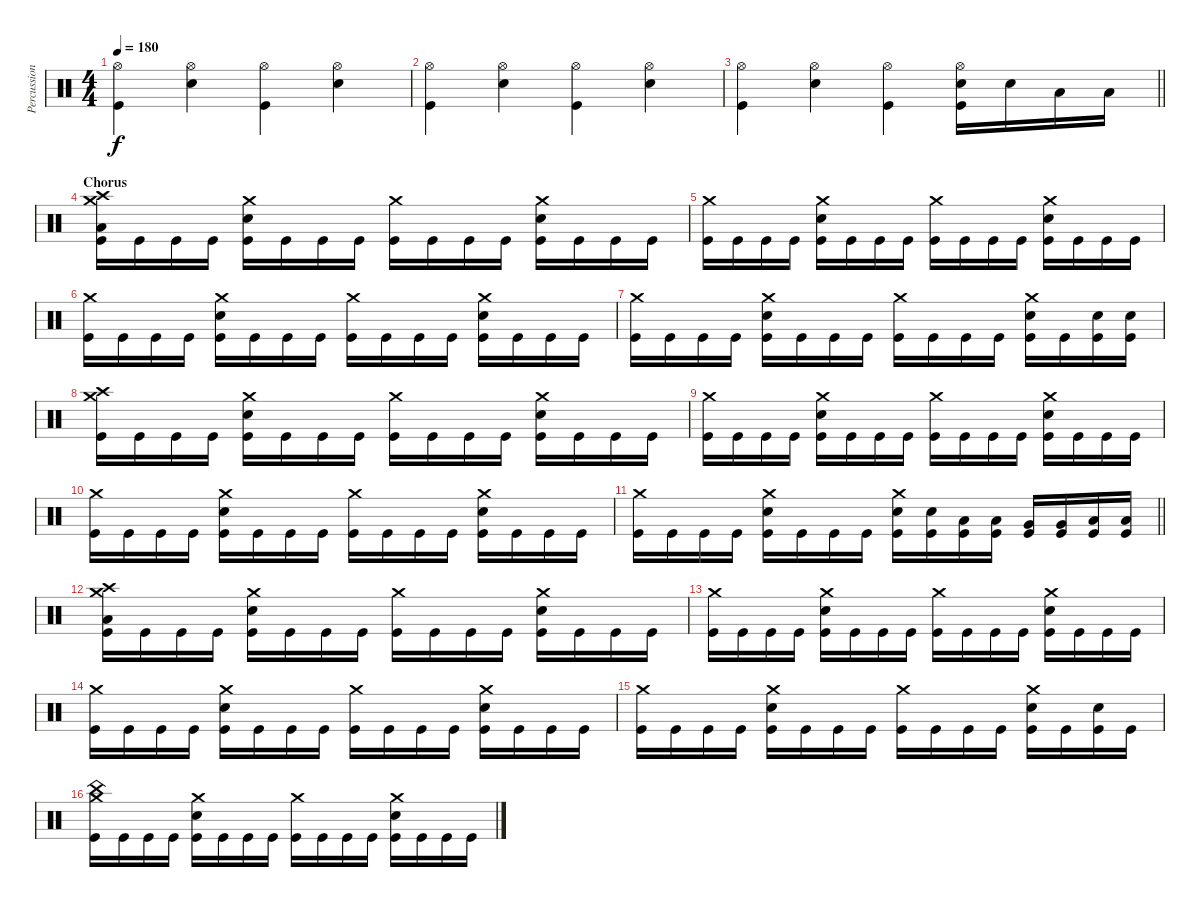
\track ("Percussion" "Percussion") {instrument percussion}
\staff {score}
\articulation defaults
\ts (4 4)
\tempo 180
\clef neutral
\ks c
("Hi-Hat (open)" "Kick (hit)").4{dy f} ("Hi-Hat (open)" "Electric Snare (hit)").4 ("Hi-Hat (open)" "Kick (hit)").4 ("Hi-Hat (open)" "Electric Snare (hit)").4 |
("Hi-Hat (open)" "Kick (hit)").4 ("Hi-Hat (open)" "Electric Snare (hit)").4 ("Hi-Hat (open)" "Kick (hit)").4 ("Hi-Hat (open)" "Electric Snare (hit)").4 |
\barLineRight lightlight
("Hi-Hat (open)" "Kick (hit)").4 ("Hi-Hat (open)" "Electric Snare (hit)").4 ("Hi-Hat (open)" "Kick (hit)").4 ("Hi-Hat (open)" "Electric Snare (hit)" "Kick (hit)").16 "Electric Snare (hit)".16 "Low Floor Tom (hit)".16 "Low Floor Tom (hit)".16 |
\section ("" "Chorus")
("Crash medium (hit)" "Crash high (hit)" "Low Floor Tom (hit)" "Kick (hit)").16 "Kick (hit)".16 "Kick (hit)".16 "Kick (hit)".16 ("Crash medium (hit)" "Electric Snare (hit)" "Kick (hit)").16 "Kick (hit)".16 "Kick (hit)".16 "Kick (hit)".16 ("Crash medium (hit)" "Kick (hit)").16 "Kick (hit)".16 "Kick (hit)".16 "Kick (hit)".16 ("Crash medium (hit)" "Electric Snare (hit)" "Kick (hit)").16 "Kick (hit)".16 "Kick (hit)".16 "Kick (hit)".16 |
("Crash medium (hit)" "Kick (hit)").16 "Kick (hit)".16 "Kick (hit)".16 "Kick (hit)".16 ("Crash medium (hit)" "Electric Snare (hit)" "Kick (hit)").16 "Kick (hit)".16 "Kick (hit)".16 "Kick (hit)".16 ("Crash medium (hit)" "Kick (hit)").16 "Kick (hit)".16 "Kick (hit)".16 "Kick (hit)".16 ("Crash medium (hit)" "Electric Snare (hit)" "Kick (hit)").16 "Kick (hit)".16 "Kick (hit)".16 "Kick (hit)".16 |
("Crash medium (hit)" "Kick (hit)").16 "Kick (hit)".16 "Kick (hit)".16 "Kick (hit)".16 ("Crash medium (hit)" "Electric Snare (hit)" "Kick (hit)").16 "Kick (hit)".16 "Kick (hit)".16 "Kick (hit)".16 ("Crash medium (hit)" "Kick (hit)").16 "Kick (hit)".16 "Kick (hit)".16 "Kick (hit)".16 ("Crash medium (hit)" "Electric Snare (hit)" "Kick (hit)").16 "Kick (hit)".16 "Kick (hit)".16 "Kick (hit)".16 |
("Crash medium (hit)" "Kick (hit)").16 "Kick (hit)".16 "Kick (hit)".16 "Kick (hit)".16 ("Crash medium (hit)" "Electric Snare (hit)" "Kick (hit)").16 "Kick (hit)".16 "Kick (hit)".16 "Kick (hit)".16 ("Crash medium (hit)" "Kick (hit)").16 "Kick (hit)".16 "Kick (hit)".16 "Kick (hit)".16 ("Crash medium (hit)" "Electric Snare (hit)" "Kick (hit)").16 "Kick (hit)".16 ("Electric Snare (hit)" "Kick (hit)").16 ("Electric Snare (hit)" "Kick (hit)").16 |
("Crash medium (hit)" "Crash high (hit)" "Kick (hit)").16 "Kick (hit)".16 "Kick (hit)".16 "Kick (hit)".16 ("Crash medium (hit)" "Electric Snare (hit)" "Kick (hit)").16 "Kick (hit)".16 "Kick (hit)".16 "Kick (hit)".16 ("Crash medium (hit)" "Kick (hit)").16 "Kick (hit)".16 "Kick (hit)".16 "Kick (hit)".16 ("Crash medium (hit)" "Electric Snare (hit)" "Kick (hit)").16 "Kick (hit)".16 "Kick (hit)".16 "Kick (hit)".16 |
("Crash medium (hit)" "Kick (hit)").16 "Kick (hit)".16 "Kick (hit)".16 "Kick (hit)".16 ("Crash medium (hit)" "Electric Snare (hit)" "Kick (hit)").16 "Kick (hit)".16 "Kick (hit)".16 "Kick (hit)".16 ("Crash medium (hit)" "Kick (hit)").16 "Kick (hit)".16 "Kick (hit)".16 "Kick (hit)".16 ("Crash medium (hit)" "Electric Snare (hit)" "Kick (hit)").16 "Kick (hit)".16 "Kick (hit)".16 "Kick (hit)".16 |
("Crash medium (hit)" "Kick (hit)").16 "Kick (hit)".16 "Kick (hit)".16 "Kick (hit)".16 ("Crash medium (hit)" "Electric Snare (hit)" "Kick (hit)").16 "Kick (hit)".16 "Kick (hit)".16 "Kick (hit)".16 ("Crash medium (hit)" "Kick (hit)").16 "Kick (hit)".16 "Kick (hit)".16 "Kick (hit)".16 ("Crash medium (hit)" "Electric Snare (hit)" "Kick (hit)").16 "Kick (hit)".16 "Kick (hit)".16 "Kick (hit)".16 |
\barLineRight lightlight
("Crash medium (hit)" "Kick (hit)").16 "Kick (hit)".16 "Kick (hit)".16 "Kick (hit)".16 ("Crash medium (hit)" "Electric Snare (hit)" "Kick (hit)").16 "Kick (hit)".16 "Kick (hit)".16 "Kick (hit)".16 ("Crash medium (hit)" "Electric Snare (hit)" "Kick (hit)").16 ("Electric Snare (hit)" "Kick (hit)").16 ("Low Tom (hit)" "Kick (hit)").16 ("Low Tom (hit)" "Kick (hit)").16 ("Very Low Tom (hit)" "Kick (hit)").16 ("Very Low Tom (hit)" "Kick (hit)").16 ("Low Floor Tom (hit)" "Kick (hit)").16 ("Low Floor Tom (hit)" "Kick (hit)").16 |
("Crash medium (hit)" "Crash high (hit)" "Low Floor Tom (hit)" "Kick (hit)").16 "Kick (hit)".16 "Kick (hit)".16 "Kick (hit)".16 ("Crash medium (hit)" "Electric Snare (hit)" "Kick (hit)").16 "Kick (hit)".16 "Kick (hit)".16 "Kick (hit)".16 ("Crash medium (hit)" "Kick (hit)").16 "Kick (hit)".16 "Kick (hit)".16 "Kick (hit)".16 ("Crash medium (hit)" "Electric Snare (hit)" "Kick (hit)").16 "Kick (hit)".16 "Kick (hit)".16 "Kick (hit)".16 |
("Crash medium (hit)" "Kick (hit)").16 "Kick (hit)".16 "Kick (hit)".16 "Kick (hit)".16 ("Crash medium (hit)" "Electric Snare (hit)" "Kick (hit)").16 "Kick (hit)".16 "Kick (hit)".16 "Kick (hit)".16 ("Crash medium (hit)" "Kick (hit)").16 "Kick (hit)".16 "Kick (hit)".16 "Kick (hit)".16 ("Crash medium (hit)" "Electric Snare (hit)" "Kick (hit)").16 "Kick (hit)".16 "Kick (hit)".16 "Kick (hit)".16 |
("Crash medium (hit)" "Kick (hit)").16 "Kick (hit)".16 "Kick (hit)".16 "Kick (hit)".16 ("Crash medium (hit)" "Electric Snare (hit)" "Kick (hit)").16 "Kick (hit)".16 "Kick (hit)".16 "Kick (hit)".16 ("Crash medium (hit)" "Kick (hit)").16 "Kick (hit)".16 "Kick (hit)".16 "Kick (hit)".16 ("Crash medium (hit)" "Electric Snare (hit)" "Kick (hit)").16 "Kick (hit)".16 "Kick (hit)".16 "Kick (hit)".16 |
("Crash medium (hit)" "Kick (hit)").16 "Kick (hit)".16 "Kick (hit)".16 "Kick (hit)".16 ("Crash medium (hit)" "Electric Snare (hit)" "Kick (hit)").16 "Kick (hit)".16 "Kick (hit)".16 "Kick (hit)".16 ("Crash medium (hit)" "Kick (hit)").16 "Kick (hit)".16 "Kick (hit)".16 "Kick (hit)".16 ("Crash medium (hit)" "Electric Snare (hit)" "Kick (hit)").16 "Kick (hit)".16 ("Electric Snare (hit)" "Kick (hit)").16 "Kick (hit)".16 |
("Crash medium (hit)" "China (hit)" "Kick (hit)").16 "Kick (hit)".16 "Kick (hit)".16 "Kick (hit)".16 ("Crash medium (hit)" "Electric Snare (hit)" "Kick (hit)").16 "Kick (hit)".16 "Kick (hit)".16 "Kick (hit)".16 ("Crash medium (hit)" "Kick (hit)").16 "Kick (hit)".16 "Kick (hit)".16 "Kick (hit)".16 ("Crash medium (hit)" "Electric Snare (hit)" "Kick (hit)").16 "Kick (hit)".16 "Kick (hit)".16 "Kick (hit)".16
